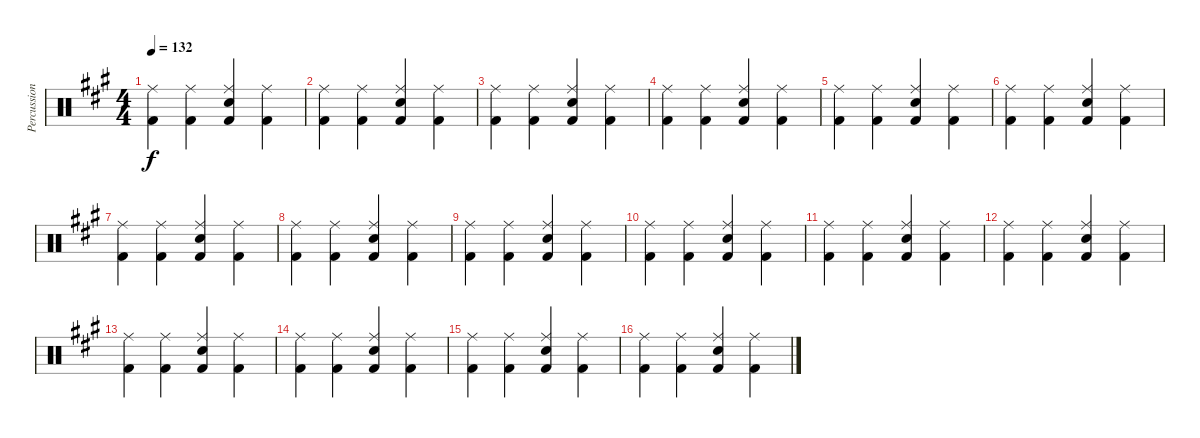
\track ("Percussion" "Percussion") {instrument percussion}
\staff {score}
\articulation defaults
\ts (4 4)
\tempo 132
\clef neutral
\ks a
("Kick (hit) 2" "Ride (middle)").4{dy f} ("Kick (hit) 2" "Ride (middle)").4 ("Kick (hit) 2" "Electric Snare (hit)" "Ride (middle)").4 ("Kick (hit) 2" "Ride (middle)").4 |
("Kick (hit) 2" "Ride (middle)").4 ("Kick (hit) 2" "Ride (middle)").4 ("Kick (hit) 2" "Electric Snare (hit)" "Ride (middle)").4 ("Kick (hit) 2" "Ride (middle)").4 |
("Kick (hit) 2" "Ride (middle)").4 ("Kick (hit) 2" "Ride (middle)").4 ("Kick (hit) 2" "Electric Snare (hit)" "Ride (middle)").4 ("Kick (hit) 2" "Ride (middle)").4 |
("Kick (hit) 2" "Ride (middle)").4 ("Kick (hit) 2" "Ride (middle)").4 ("Kick (hit) 2" "Electric Snare (hit)" "Ride (middle)").4 ("Kick (hit) 2" "Ride (middle)").4 |
("Kick (hit) 2" "Ride (middle)").4 ("Kick (hit) 2" "Ride (middle)").4 ("Kick (hit) 2" "Electric Snare (hit)" "Ride (middle)").4 ("Kick (hit) 2" "Ride (middle)").4 |
("Kick (hit) 2" "Ride (middle)").4 ("Kick (hit) 2" "Ride (middle)").4 ("Kick (hit) 2" "Electric Snare (hit)" "Ride (middle)").4 ("Kick (hit) 2" "Ride (middle)").4 |
("Kick (hit) 2" "Ride (middle)").4 ("Kick (hit) 2" "Ride (middle)").4 ("Kick (hit) 2" "Electric Snare (hit)" "Ride (middle)").4 ("Kick (hit) 2" "Ride (middle)").4 |
("Kick (hit) 2" "Ride (middle)").4 ("Kick (hit) 2" "Ride (middle)").4 ("Kick (hit) 2" "Electric Snare (hit)" "Ride (middle)").4 ("Kick (hit) 2" "Ride (middle)").4 |
("Kick (hit) 2" "Ride (middle)").4 ("Kick (hit) 2" "Ride (middle)").4 ("Kick (hit) 2" "Electric Snare (hit)" "Ride (middle)").4 ("Kick (hit) 2" "Ride (middle)").4 |
("Kick (hit) 2" "Ride (middle)").4 ("Kick (hit) 2" "Ride (middle)").4 ("Kick (hit) 2" "Electric Snare (hit)" "Ride (middle)").4 ("Kick (hit) 2" "Ride (middle)").4 |
("Kick (hit) 2" "Ride (middle)").4 ("Kick (hit) 2" "Ride (middle)").4 ("Kick (hit) 2" "Electric Snare (hit)" "Ride (middle)").4 ("Kick (hit) 2" "Ride (middle)").4 |
("Kick (hit) 2" "Ride (middle)").4 ("Kick (hit) 2" "Ride (middle)").4 ("Kick (hit) 2" "Electric Snare (hit)" "Ride (middle)").4 ("Kick (hit) 2" "Ride (middle)").4 |
("Kick (hit) 2" "Ride (middle)").4 ("Kick (hit) 2" "Ride (middle)").4 ("Kick (hit) 2" "Electric Snare (hit)" "Ride (middle)").4 ("Kick (hit) 2" "Ride (middle)").4 |
("Kick (hit) 2" "Ride (middle)").4 ("Kick (hit) 2" "Ride (middle)").4 ("Kick (hit) 2" "Electric Snare (hit)" "Ride (middle)").4 ("Kick (hit) 2" "Ride (middle)").4 |
("Kick (hit) 2" "Ride (middle)").4 ("Kick (hit) 2" "Ride (middle)").4 ("Kick (hit) 2" "Electric Snare (hit)" "Ride (middle)").4 ("Kick (hit) 2" "Ride (middle)").4 |
("Kick (hit) 2" "Ride (middle)").4 ("Kick (hit) 2" "Ride (middle)").4 ("Kick (hit) 2" "Electric Snare (hit)" "Ride (middle)").4 ("Kick (hit) 2" "Ride (middle)").4
